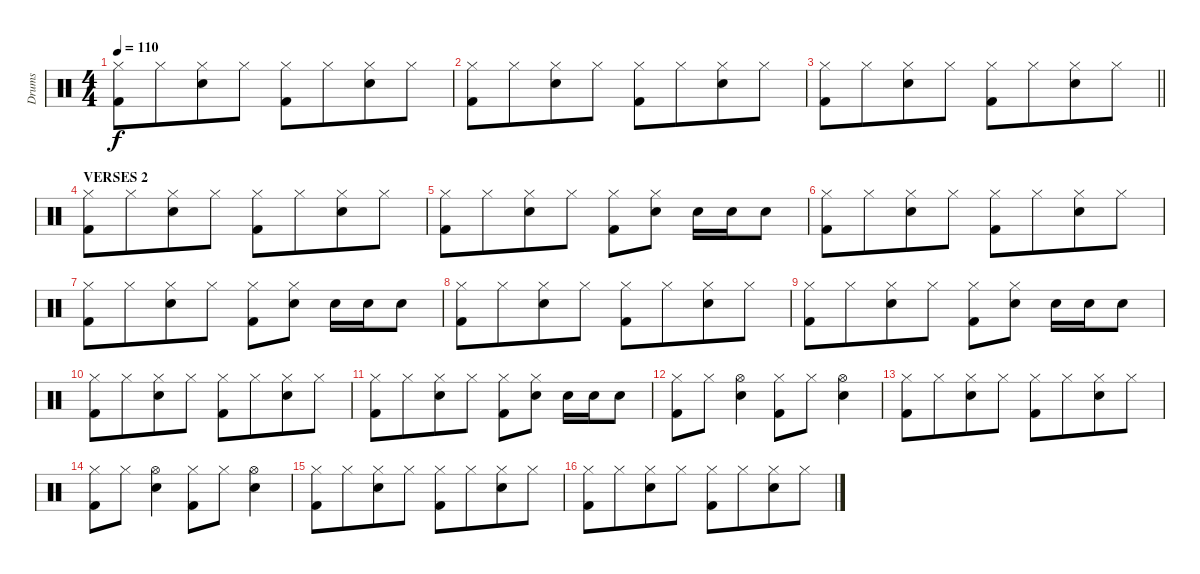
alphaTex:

\track ("Drums" "Drums") {instrument percussion}
\staff {score}
\articulation defaults
\ts (4 4)
\tempo 110
\clef neutral
\ks c
("Hi-Hat (closed)" "Kick (hit) 2").8{dy f} "Hi-Hat (closed)".8{beam merge} ("Hi-Hat (closed)" "Electric Snare (hit)").8 "Hi-Hat (closed)".8 ("Hi-Hat (closed)" "Kick (hit) 2").8 "Hi-Hat (closed)".8{beam merge} ("Hi-Hat (closed)" "Electric Snare (hit)").8 "Hi-Hat (closed)".8 |
("Hi-Hat (closed)" "Kick (hit) 2").8 "Hi-Hat (closed)".8{beam merge} ("Hi-Hat (closed)" "Electric Snare (hit)").8 "Hi-Hat (closed)".8 ("Hi-Hat (closed)" "Kick (hit) 2").8 "Hi-Hat (closed)".8{beam merge} ("Hi-Hat (closed)" "Electric Snare (hit)").8 "Hi-Hat (closed)".8 |
\barLineRight lightlight
("Hi-Hat (closed)" "Kick (hit) 2").8 "Hi-Hat (closed)".8{beam merge} ("Hi-Hat (closed)" "Electric Snare (hit)").8 "Hi-Hat (closed)".8 ("Hi-Hat (closed)" "Kick (hit) 2").8 "Hi-Hat (closed)".8{beam merge} ("Hi-Hat (closed)" "Electric Snare (hit)").8 "Hi-Hat (closed)".8 |
\section ("" "VERSES 2")
("Hi-Hat (closed)" "Kick (hit) 2").8 "Hi-Hat (closed)".8{beam merge} ("Hi-Hat (closed)" "Electric Snare (hit)").8 "Hi-Hat (closed)".8 ("Hi-Hat (closed)" "Kick (hit) 2").8 "Hi-Hat (closed)".8{beam merge} ("Hi-Hat (closed)" "Electric Snare (hit)").8 "Hi-Hat (closed)".8 |
("Hi-Hat (closed)" "Kick (hit) 2").8 "Hi-Hat (closed)".8{beam merge} ("Hi-Hat (closed)" "Electric Snare (hit)").8 "Hi-Hat (closed)".8 ("Hi-Hat (closed)" "Kick (hit) 2").8 ("Hi-Hat (closed)" "Electric Snare (hit)").8 "Electric Snare (hit)".16 "Electric Snare (hit)".16 "Electric Snare (hit)".8 |
("Hi-Hat (closed)" "Kick (hit) 2").8 "Hi-Hat (closed)".8{beam merge} ("Hi-Hat (closed)" "Electric Snare (hit)").8 "Hi-Hat (closed)".8 ("Hi-Hat (closed)" "Kick (hit) 2").8 "Hi-Hat (closed)".8{beam merge} ("Hi-Hat (closed)" "Electric Snare (hit)").8 "Hi-Hat (closed)".8 |
("Hi-Hat (closed)" "Kick (hit) 2").8 "Hi-Hat (closed)".8{beam merge} ("Hi-Hat (closed)" "Electric Snare (hit)").8 "Hi-Hat (closed)".8 ("Hi-Hat (closed)" "Kick (hit) 2").8 ("Hi-Hat (closed)" "Electric Snare (hit)").8 "Electric Snare (hit)".16 "Electric Snare (hit)".16 "Electric Snare (hit)".8 |
("Hi-Hat (closed)" "Kick (hit) 2").8 "Hi-Hat (closed)".8{beam merge} ("Hi-Hat (closed)" "Electric Snare (hit)").8 "Hi-Hat (closed)".8 ("Hi-Hat (closed)" "Kick (hit) 2").8 "Hi-Hat (closed)".8{beam merge} ("Hi-Hat (closed)" "Electric Snare (hit)").8 "Hi-Hat (closed)".8 |
("Hi-Hat (closed)" "Kick (hit) 2").8 "Hi-Hat (closed)".8{beam merge} ("Hi-Hat (closed)" "Electric Snare (hit)").8 "Hi-Hat (closed)".8 ("Hi-Hat (closed)" "Kick (hit) 2").8 ("Hi-Hat (closed)" "Electric Snare (hit)").8 "Electric Snare (hit)".16 "Electric Snare (hit)".16 "Electric Snare (hit)".8 |
("Hi-Hat (closed)" "Kick (hit) 2").8 "Hi-Hat (closed)".8{beam merge} ("Hi-Hat (closed)" "Electric Snare (hit)").8 "Hi-Hat (closed)".8 ("Hi-Hat (closed)" "Kick (hit) 2").8 "Hi-Hat (closed)".8{beam merge} ("Hi-Hat (closed)" "Electric Snare (hit)").8 "Hi-Hat (closed)".8 |
("Hi-Hat (closed)" "Kick (hit) 2").8 "Hi-Hat (closed)".8{beam merge} ("Hi-Hat (closed)" "Electric Snare (hit)").8 "Hi-Hat (closed)".8 ("Hi-Hat (closed)" "Kick (hit) 2").8 ("Hi-Hat (closed)" "Electric Snare (hit)").8 "Electric Snare (hit)".16 "Electric Snare (hit)".16 "Electric Snare (hit)".8 |
("Hi-Hat (closed)" "Kick (hit) 2").8 "Hi-Hat (closed)".8 ("Hi-Hat (open)" "Electric Snare (hit)").4 ("Hi-Hat (closed)" "Kick (hit) 2").8 "Hi-Hat (closed)".8 ("Hi-Hat (open)" "Electric Snare (hit)").4 |
("Hi-Hat (closed)" "Kick (hit) 2").8 "Hi-Hat (closed)".8{beam merge} ("Hi-Hat (closed)" "Electric Snare (hit)").8 "Hi-Hat (closed)".8 ("Hi-Hat (closed)" "Kick (hit) 2").8 "Hi-Hat (closed)".8{beam merge} ("Hi-Hat (closed)" "Electric Snare (hit)").8 "Hi-Hat (closed)".8 |
("Hi-Hat (closed)" "Kick (hit) 2").8 "Hi-Hat (closed)".8 ("Hi-Hat (open)" "Electric Snare (hit)").4 ("Hi-Hat (closed)" "Kick (hit) 2").8 "Hi-Hat (closed)".8 ("Hi-Hat (open)" "Electric Snare (hit)").4 |
("Hi-Hat (closed)" "Kick (hit) 2").8 "Hi-Hat (closed)".8{beam merge} ("Hi-Hat (closed)" "Electric Snare (hit)").8 "Hi-Hat (closed)".8 ("Hi-Hat (closed)" "Kick (hit) 2").8 "Hi-Hat (closed)".8{beam merge} ("Hi-Hat (closed)" "Electric Snare (hit)").8 "Hi-Hat (closed)".8 |
("Hi-Hat (closed)" "Kick (hit) 2").8 "Hi-Hat (closed)".8{beam merge} ("Hi-Hat (closed)" "Electric Snare (hit)").8 "Hi-Hat (closed)".8 ("Hi-Hat (closed)" "Kick (hit) 2").8 "Hi-Hat (closed)".8{beam merge} ("Hi-Hat (closed)" "Electric Snare (hit)").8 "Hi-Hat (closed)".8
